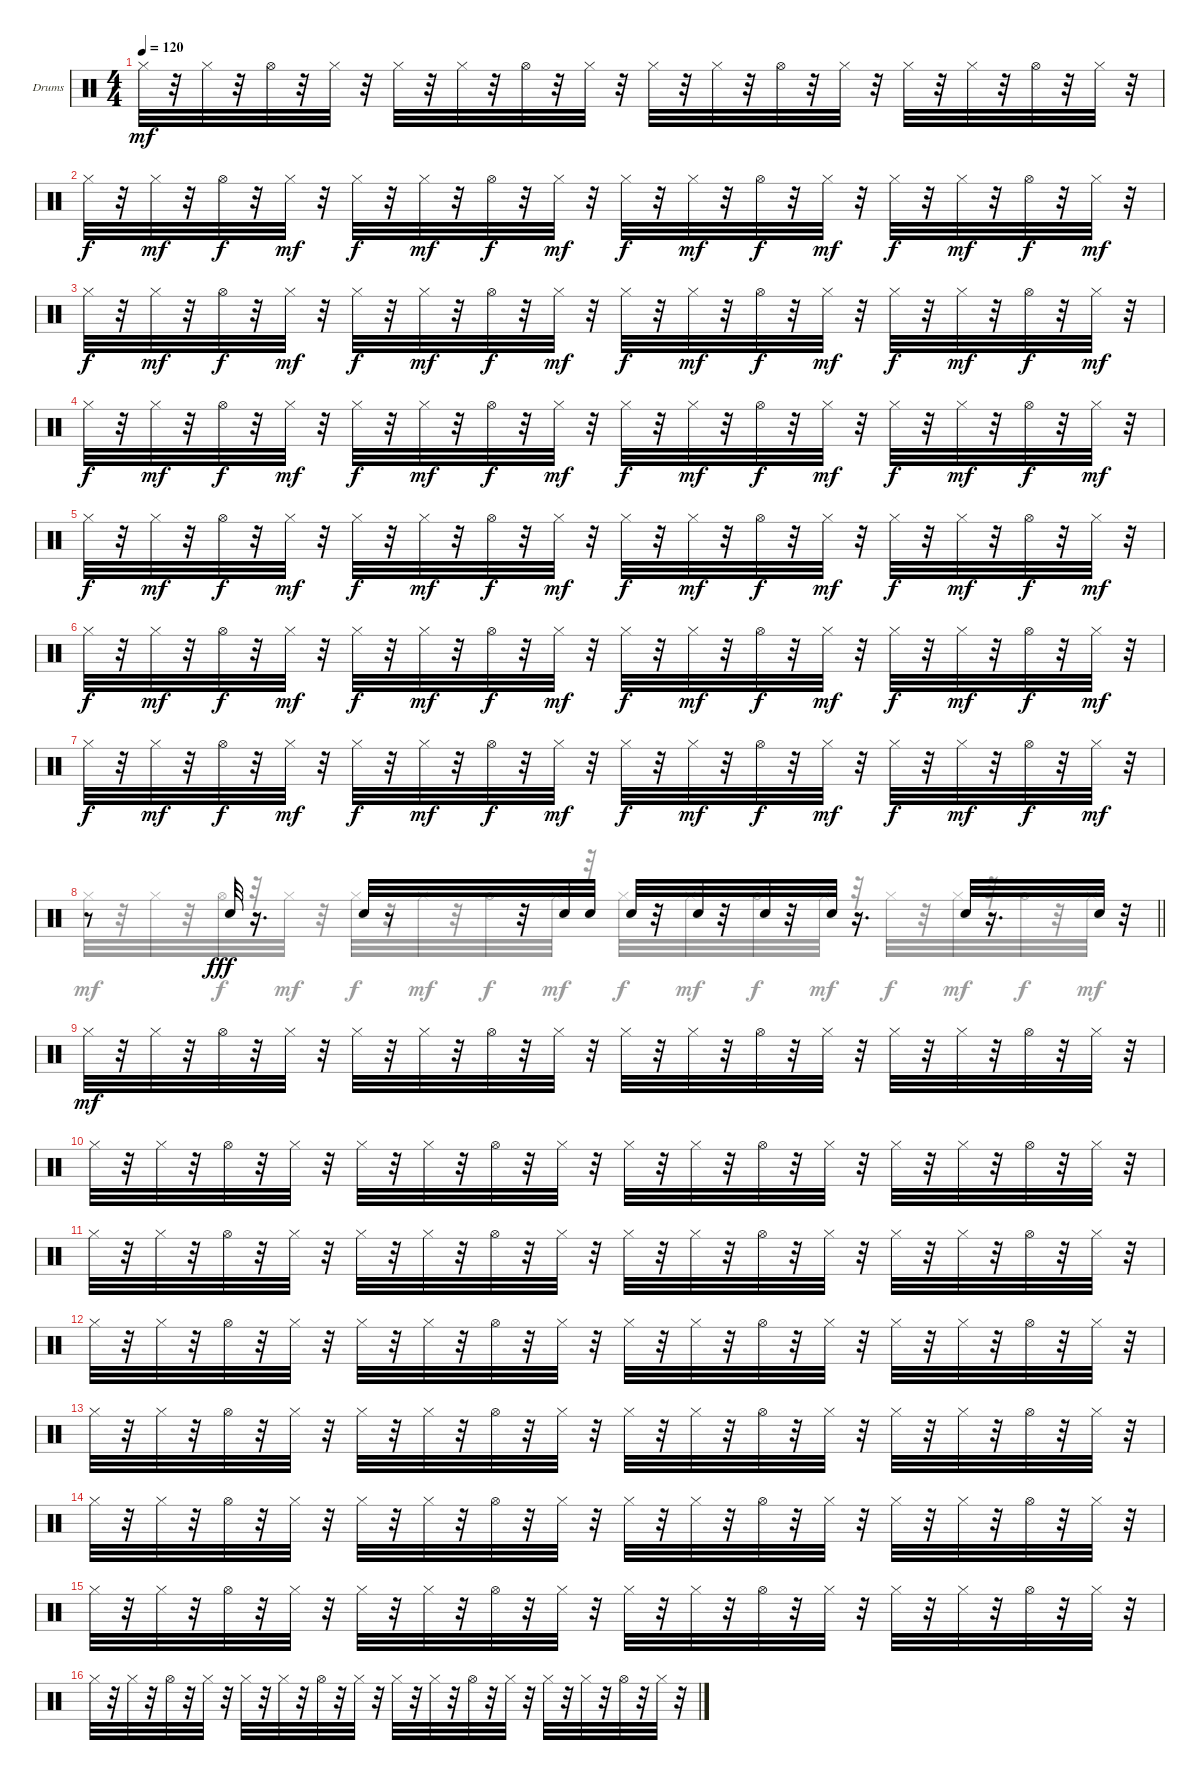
\defaultSystemsLayout 4
\bracketExtendMode groupsimilarinstruments
\firstSystemTrackNameOrientation horizontal
\otherSystemsTrackNameOrientation horizontal
\track ("Drumkit" "Drums") {instrument percussion}
\staff {score}
\articulation defaults
\voice
\ts (4 4)
\tempo 120
\clef neutral
\scale
0.472222
\ks c "Hi-Hat (closed)".32{dy mf}
r.32 "Hi-Hat (closed)".32 r.32 "Hi-Hat (open)".32 r.32 "Hi-Hat (closed)".32 r.32 "Hi-Hat (closed)".32 r.32 "Hi-Hat (closed)".32 r.32 "Hi-Hat (open)".32 r.32 "Hi-Hat (closed)".32 r.32 "Hi-Hat (closed)".32 r.32 "Hi-Hat (closed)".32 r.32 "Hi-Hat (open)".32 r.32 "Hi-Hat (closed)".32 r.32 "Hi-Hat (closed)".32 r.32 "Hi-Hat (closed)".32 r.32 "Hi-Hat (open)".32 r.32 "Hi-Hat (closed)".32 r.32 |
\scale
0.263889 "Hi-Hat (closed)".32{dy f} r.32 "Hi-Hat (closed)".32{dy mf} r.32 "Hi-Hat (open)".32{dy f} r.32 "Hi-Hat (closed)".32{dy mf} r.32 "Hi-Hat (closed)".32{dy f} r.32 "Hi-Hat (closed)".32{dy mf} r.32 "Hi-Hat (open)".32{dy f} r.32 "Hi-Hat (closed)".32{dy mf} r.32 "Hi-Hat (closed)".32{dy f} r.32 "Hi-Hat (closed)".32{dy mf} r.32 "Hi-Hat (open)".32{dy f} r.32 "Hi-Hat (closed)".32{dy mf} r.32 "Hi-Hat (closed)".32{dy f} r.32 "Hi-Hat (closed)".32{dy mf} r.32 "Hi-Hat (open)".32{dy f} r.32 "Hi-Hat (closed)".32{dy mf} r.32 |
\scale
0.263889 "Hi-Hat (closed)".32{dy f} r.32 "Hi-Hat (closed)".32{dy mf} r.32 "Hi-Hat (open)".32{dy f} r.32 "Hi-Hat (closed)".32{dy mf} r.32 "Hi-Hat (closed)".32{dy f} r.32 "Hi-Hat (closed)".32{dy mf} r.32 "Hi-Hat (open)".32{dy f} r.32 "Hi-Hat (closed)".32{dy mf} r.32 "Hi-Hat (closed)".32{dy f} r.32 "Hi-Hat (closed)".32{dy mf} r.32 "Hi-Hat (open)".32{dy f} r.32 "Hi-Hat (closed)".32{dy mf} r.32 "Hi-Hat (closed)".32{dy f} r.32 "Hi-Hat (closed)".32{dy mf} r.32 "Hi-Hat (open)".32{dy f} r.32 "Hi-Hat (closed)".32{dy mf} r.32 |
\scale
0.333333 "Hi-Hat (closed)".32{dy f} r.32 "Hi-Hat (closed)".32{dy mf} r.32 "Hi-Hat (open)".32{dy f} r.32 "Hi-Hat (closed)".32{dy mf} r.32 "Hi-Hat (closed)".32{dy f} r.32 "Hi-Hat (closed)".32{dy mf} r.32 "Hi-Hat (open)".32{dy f} r.32 "Hi-Hat (closed)".32{dy mf} r.32 "Hi-Hat (closed)".32{dy f} r.32 "Hi-Hat (closed)".32{dy mf} r.32 "Hi-Hat (open)".32{dy f} r.32 "Hi-Hat (closed)".32{dy mf} r.32 "Hi-Hat (closed)".32{dy f} r.32 "Hi-Hat (closed)".32{dy mf} r.32 "Hi-Hat (open)".32{dy f} r.32 "Hi-Hat (closed)".32{dy mf} r.32 |
\scale
0.333333 "Hi-Hat (closed)".32{dy f} r.32 "Hi-Hat (closed)".32{dy mf} r.32 "Hi-Hat (open)".32{dy f} r.32 "Hi-Hat (closed)".32{dy mf} r.32 "Hi-Hat (closed)".32{dy f} r.32 "Hi-Hat (closed)".32{dy mf} r.32 "Hi-Hat (open)".32{dy f} r.32 "Hi-Hat (closed)".32{dy mf} r.32 "Hi-Hat (closed)".32{dy f} r.32 "Hi-Hat (closed)".32{dy mf} r.32 "Hi-Hat (open)".32{dy f} r.32 "Hi-Hat (closed)".32{dy mf} r.32 "Hi-Hat (closed)".32{dy f} r.32 "Hi-Hat (closed)".32{dy mf} r.32 "Hi-Hat (open)".32{dy f} r.32 "Hi-Hat (closed)".32{dy mf} r.32 |
\scale
0.333333 "Hi-Hat (closed)".32{dy f} r.32 "Hi-Hat (closed)".32{dy mf} r.32 "Hi-Hat (open)".32{dy f} r.32 "Hi-Hat (closed)".32{dy mf} r.32 "Hi-Hat (closed)".32{dy f} r.32 "Hi-Hat (closed)".32{dy mf} r.32 "Hi-Hat (open)".32{dy f} r.32 "Hi-Hat (closed)".32{dy mf} r.32 "Hi-Hat (closed)".32{dy f} r.32 "Hi-Hat (closed)".32{dy mf} r.32 "Hi-Hat (open)".32{dy f} r.32 "Hi-Hat (closed)".32{dy mf} r.32 "Hi-Hat (closed)".32{dy f} r.32 "Hi-Hat (closed)".32{dy mf} r.32 "Hi-Hat (open)".32{dy f} r.32 "Hi-Hat (closed)".32{dy mf} r.32 |
\scale
0.333333 "Hi-Hat (closed)".32{dy f} r.32 "Hi-Hat (closed)".32{dy mf} r.32 "Hi-Hat (open)".32{dy f} r.32 "Hi-Hat (closed)".32{dy mf} r.32 "Hi-Hat (closed)".32{dy f} r.32 "Hi-Hat (closed)".32{dy mf} r.32 "Hi-Hat (open)".32{dy f} r.32 "Hi-Hat (closed)".32{dy mf} r.32 "Hi-Hat (closed)".32{dy f} r.32 "Hi-Hat (closed)".32{dy mf} r.32 "Hi-Hat (open)".32{dy f} r.32 "Hi-Hat (closed)".32{dy mf} r.32 "Hi-Hat (closed)".32{dy f} r.32 "Hi-Hat (closed)".32{dy mf} r.32 "Hi-Hat (open)".32{dy f} r.32 "Hi-Hat (closed)".32{dy mf} r.32 |
\scale
0.333333
\barLineRight lightlight
r.8 "Snare (hit) 2".32{dy fff} r.16{d} "Snare (hit) 2".32 r.8 r.32 "Snare (hit) 2".32 "Snare (hit) 2".32 "Snare (hit) 2".32 r.32 "Snare (hit) 2".32 r.32 "Snare (hit) 2".32 r.32 "Snare (hit) 2".32 r.16{d} "Snare (hit) 2".32 r.16{d} "Snare (hit) 2".32 r.32 |
\scale
0.333333 "Hi-Hat (closed)".32{dy mf} r.32 "Hi-Hat (closed)".32 r.32 "Hi-Hat (open)".32 r.32 "Hi-Hat (closed)".32 r.32 "Hi-Hat (closed)".32 r.32 "Hi-Hat (closed)".32 r.32 "Hi-Hat (open)".32 r.32 "Hi-Hat (closed)".32 r.32 "Hi-Hat (closed)".32 r.32 "Hi-Hat (closed)".32 r.32 "Hi-Hat (open)".32 r.32 "Hi-Hat (closed)".32 r.32 "Hi-Hat (closed)".32 r.32 "Hi-Hat (closed)".32 r.32 "Hi-Hat (open)".32 r.32 "Hi-Hat (closed)".32 r.32 |
\scale
0.333333 "Hi-Hat (closed)".32 r.32 "Hi-Hat (closed)".32 r.32 "Hi-Hat (open)".32 r.32 "Hi-Hat (closed)".32 r.32 "Hi-Hat (closed)".32 r.32 "Hi-Hat (closed)".32 r.32 "Hi-Hat (open)".32 r.32 "Hi-Hat (closed)".32 r.32 "Hi-Hat (closed)".32 r.32 "Hi-Hat (closed)".32 r.32 "Hi-Hat (open)".32 r.32 "Hi-Hat (closed)".32 r.32 "Hi-Hat (closed)".32 r.32 "Hi-Hat (closed)".32 r.32 "Hi-Hat (open)".32 r.32 "Hi-Hat (closed)".32 r.32 |
\scale
0.333333 "Hi-Hat (closed)".32 r.32 "Hi-Hat (closed)".32 r.32 "Hi-Hat (open)".32 r.32 "Hi-Hat (closed)".32 r.32 "Hi-Hat (closed)".32 r.32 "Hi-Hat (closed)".32 r.32 "Hi-Hat (open)".32 r.32 "Hi-Hat (closed)".32 r.32 "Hi-Hat (closed)".32 r.32 "Hi-Hat (closed)".32 r.32 "Hi-Hat (open)".32 r.32 "Hi-Hat (closed)".32 r.32 "Hi-Hat (closed)".32 r.32 "Hi-Hat (closed)".32 r.32 "Hi-Hat (open)".32 r.32 "Hi-Hat (closed)".32 r.32 |
\scale
0.333333 "Hi-Hat (closed)".32 r.32 "Hi-Hat (closed)".32 r.32 "Hi-Hat (open)".32 r.32 "Hi-Hat (closed)".32 r.32 "Hi-Hat (closed)".32 r.32 "Hi-Hat (closed)".32 r.32 "Hi-Hat (open)".32 r.32 "Hi-Hat (closed)".32 r.32 "Hi-Hat (closed)".32 r.32 "Hi-Hat (closed)".32 r.32 "Hi-Hat (open)".32 r.32 "Hi-Hat (closed)".32 r.32 "Hi-Hat (closed)".32 r.32 "Hi-Hat (closed)".32 r.32 "Hi-Hat (open)".32 r.32 "Hi-Hat (closed)".32 r.32 |
\scale
0.333333 "Hi-Hat (closed)".32 r.32 "Hi-Hat (closed)".32 r.32 "Hi-Hat (open)".32 r.32 "Hi-Hat (closed)".32 r.32 "Hi-Hat (closed)".32 r.32 "Hi-Hat (closed)".32 r.32 "Hi-Hat (open)".32 r.32 "Hi-Hat (closed)".32 r.32 "Hi-Hat (closed)".32 r.32 "Hi-Hat (closed)".32 r.32 "Hi-Hat (open)".32 r.32 "Hi-Hat (closed)".32 r.32 "Hi-Hat (closed)".32 r.32 "Hi-Hat (closed)".32 r.32 "Hi-Hat (open)".32 r.32 "Hi-Hat (closed)".32 r.32 |
\scale
0.333333 "Hi-Hat (closed)".32 r.32 "Hi-Hat (closed)".32 r.32 "Hi-Hat (open)".32 r.32 "Hi-Hat (closed)".32 r.32 "Hi-Hat (closed)".32 r.32 "Hi-Hat (closed)".32 r.32 "Hi-Hat (open)".32 r.32 "Hi-Hat (closed)".32 r.32 "Hi-Hat (closed)".32 r.32 "Hi-Hat (closed)".32 r.32 "Hi-Hat (open)".32 r.32 "Hi-Hat (closed)".32 r.32 "Hi-Hat (closed)".32 r.32 "Hi-Hat (closed)".32 r.32 "Hi-Hat (open)".32 r.32 "Hi-Hat (closed)".32 r.32 |
\scale
0.333333 "Hi-Hat (closed)".32 r.32 "Hi-Hat (closed)".32 r.32 "Hi-Hat (open)".32 r.32 "Hi-Hat (closed)".32 r.32 "Hi-Hat (closed)".32 r.32 "Hi-Hat (closed)".32 r.32 "Hi-Hat (open)".32 r.32 "Hi-Hat (closed)".32 r.32 "Hi-Hat (closed)".32 r.32 "Hi-Hat (closed)".32 r.32 "Hi-Hat (open)".32 r.32 "Hi-Hat (closed)".32 r.32 "Hi-Hat (closed)".32 r.32 "Hi-Hat (closed)".32 r.32 "Hi-Hat (open)".32 r.32 "Hi-Hat (closed)".32 r.32 |
\scale
0.333333 "Hi-Hat (closed)".32 r.32 "Hi-Hat (closed)".32 r.32 "Hi-Hat (open)".32 r.32 "Hi-Hat (closed)".32 r.32 "Hi-Hat (closed)".32 r.32 "Hi-Hat (closed)".32 r.32 "Hi-Hat (open)".32 r.32 "Hi-Hat (closed)".32 r.32 "Hi-Hat (closed)".32 r.32 "Hi-Hat (closed)".32 r.32 "Hi-Hat (open)".32 r.32 "Hi-Hat (closed)".32 r.32 "Hi-Hat (closed)".32 r.32 "Hi-Hat (closed)".32 r.32 "Hi-Hat (open)".32 r.32 "Hi-Hat (closed)".32 r.32
\voice
\clef neutral
\ottava regular
\simile none
\scale
0.472222
\ks c
|
\scale
0.263889 |
\scale
0.263889 |
\scale
0.333333 |
\scale
0.333333 |
\scale
0.333333 |
\scale
0.333333 |
\scale
0.333333
\barLineRight lightlight "Hi-Hat (closed)".32
r.32 "Hi-Hat (closed)".32{dy mf} r.32 "Hi-Hat (open)".32{dy f} r.32 "Hi-Hat (closed)".32{dy mf} r.32 "Hi-Hat (closed)".32{dy f} r.32 "Hi-Hat (closed)".32{dy mf} r.32 "Hi-Hat (open)".32{dy f} r.32 "Hi-Hat (closed)".32{dy mf} r.32 "Hi-Hat (closed)".32{dy f} r.32 "Hi-Hat (closed)".32{dy mf} r.32 "Hi-Hat (open)".32{dy f} r.32 "Hi-Hat (closed)".32{dy mf} r.32 "Hi-Hat (closed)".32{dy f} r.32 "Hi-Hat (closed)".32{dy mf} r.32 "Hi-Hat (open)".32{dy f} r.32 "Hi-Hat (closed)".32{dy mf} r.32 |
\scale
0.333333 |
\scale
0.333333 |
\scale
0.333333 |
\scale
0.333333 |
\scale
0.333333 |
\scale
0.333333 |
\scale
0.333333 |
\scale
0.333333
